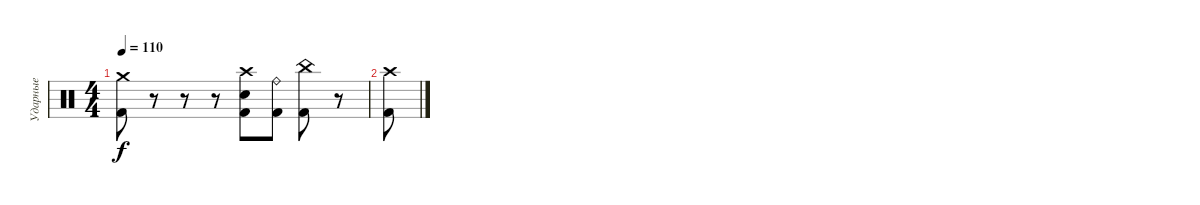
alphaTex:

\track ("Ударные" "Ударные") {instrument percussion}
\staff {score}
\articulation defaults
\ts (4 4)
\tempo 110
\clef neutral
\ks c
("Crash medium (hit)" "Kick (hit) 2").8{dy f} r.8 r.8 r.8 ("Crash high (hit)" "Electric Snare (hit)" "Kick (hit) 2").8 ("Ride (bell)" "Kick (hit) 2").8 ("China (hit)" "Kick (hit) 2").8 r.8 |
("Kick (hit) 2" "Crash high (hit)").8
